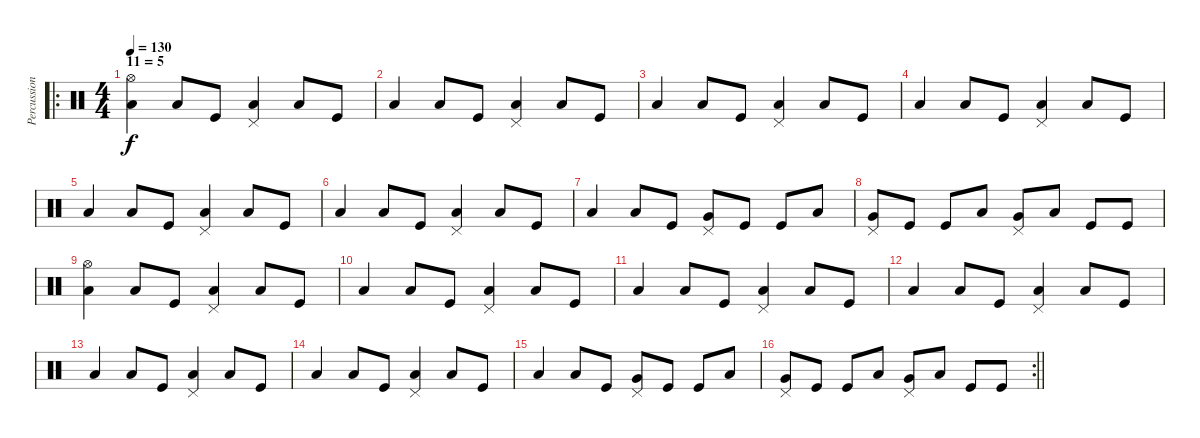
\track ("Percussioni" "Percussion") {instrument percussion}
\staff {score}
\articulation defaults
\ro
\ts (4 4)
\section ("" "11 = 5")
\tempo 130
\clef neutral
\ks c
("Hi-Hat (open)" "Low Tom (hit)").4{dy f} "Low Floor Tom (hit)".8 "Kick (hit)".8 ("Low Floor Tom (hit)" "Pedal Hi-Hat (hit)").4 "Low Floor Tom (hit)".8 "Kick (hit)".8 |
"Low Floor Tom (hit)".4 "Low Floor Tom (hit)".8 "Kick (hit)".8 ("Low Floor Tom (hit)" "Pedal Hi-Hat (hit)").4 "Low Floor Tom (hit)".8 "Kick (hit)".8 |
"Low Floor Tom (hit)".4 "Low Floor Tom (hit)".8 "Kick (hit)".8 ("Low Floor Tom (hit)" "Pedal Hi-Hat (hit)").4 "Low Floor Tom (hit)".8 "Kick (hit)".8 |
"Low Floor Tom (hit)".4 "Low Floor Tom (hit)".8 "Kick (hit)".8 ("Low Floor Tom (hit)" "Pedal Hi-Hat (hit)").4 "Low Floor Tom (hit)".8 "Kick (hit)".8 |
"Low Floor Tom (hit)".4 "Low Floor Tom (hit)".8 "Kick (hit)".8 ("Low Floor Tom (hit)" "Pedal Hi-Hat (hit)").4 "Low Floor Tom (hit)".8 "Kick (hit)".8 |
"Low Floor Tom (hit)".4 "Low Floor Tom (hit)".8 "Kick (hit)".8 ("Low Floor Tom (hit)" "Pedal Hi-Hat (hit)").4 "Low Floor Tom (hit)".8 "Kick (hit)".8 |
"Low Floor Tom (hit)".4 "Low Floor Tom (hit)".8 "Kick (hit)".8 ("Very Low Tom (hit)" "Pedal Hi-Hat (hit)").8 "Kick (hit)".8 "Kick (hit)".8 "Low Floor Tom (hit)".8 |
("Very Low Tom (hit)" "Pedal Hi-Hat (hit)").8 "Kick (hit)".8 "Kick (hit)".8 "Low Floor Tom (hit)".8 ("Very Low Tom (hit)" "Pedal Hi-Hat (hit)").8 "Low Floor Tom (hit)".8 "Kick (hit)".8 "Kick (hit)".8 |
("Hi-Hat (open)" "Low Tom (hit)").4 "Low Floor Tom (hit)".8 "Kick (hit)".8 ("Low Floor Tom (hit)" "Pedal Hi-Hat (hit)").4 "Low Floor Tom (hit)".8 "Kick (hit)".8 |
"Low Floor Tom (hit)".4 "Low Floor Tom (hit)".8 "Kick (hit)".8 ("Low Floor Tom (hit)" "Pedal Hi-Hat (hit)").4 "Low Floor Tom (hit)".8 "Kick (hit)".8 |
"Low Floor Tom (hit)".4 "Low Floor Tom (hit)".8 "Kick (hit)".8 ("Low Floor Tom (hit)" "Pedal Hi-Hat (hit)").4 "Low Floor Tom (hit)".8 "Kick (hit)".8 |
"Low Floor Tom (hit)".4 "Low Floor Tom (hit)".8 "Kick (hit)".8 ("Low Floor Tom (hit)" "Pedal Hi-Hat (hit)").4 "Low Floor Tom (hit)".8 "Kick (hit)".8 |
"Low Floor Tom (hit)".4 "Low Floor Tom (hit)".8 "Kick (hit)".8 ("Low Floor Tom (hit)" "Pedal Hi-Hat (hit)").4 "Low Floor Tom (hit)".8 "Kick (hit)".8 |
"Low Floor Tom (hit)".4 "Low Floor Tom (hit)".8 "Kick (hit)".8 ("Low Floor Tom (hit)" "Pedal Hi-Hat (hit)").4 "Low Floor Tom (hit)".8 "Kick (hit)".8 |
"Low Floor Tom (hit)".4 "Low Floor Tom (hit)".8 "Kick (hit)".8 ("Very Low Tom (hit)" "Pedal Hi-Hat (hit)").8 "Kick (hit)".8 "Kick (hit)".8 "Low Floor Tom (hit)".8 |
\rc 2
\barLineRight lightlight
("Very Low Tom (hit)" "Pedal Hi-Hat (hit)").8 "Kick (hit)".8 "Kick (hit)".8 "Low Floor Tom (hit)".8 ("Very Low Tom (hit)" "Pedal Hi-Hat (hit)").8 "Low Floor Tom (hit)".8 "Kick (hit)".8 "Kick (hit)".8
